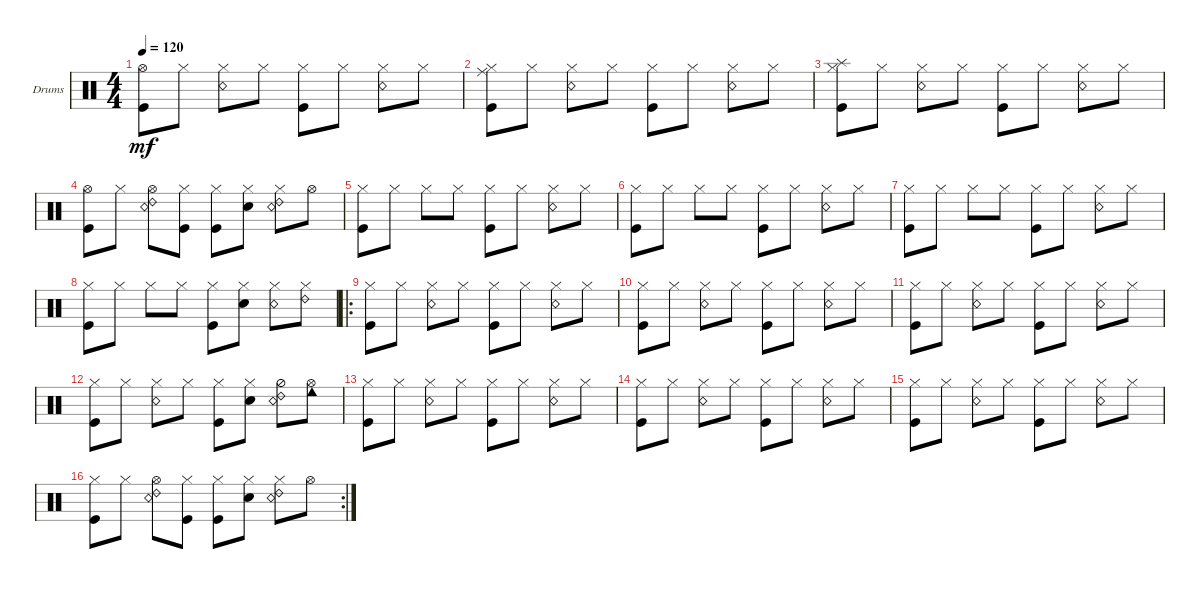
\defaultSystemsLayout 4
\bracketExtendMode groupsimilarinstruments
\firstSystemTrackNameOrientation horizontal
\otherSystemsTrackNameOrientation horizontal
\track ("Drumkit" "Drums") {instrument percussion}
\staff {score}
\articulation defaults
\ts (4 4)
\tempo 120
\clef neutral
\ks c
("Hi-Hat (open)" "Kick (hit)").8{dy mf} "Hi-Hat (closed)".8 ("Hi-Hat (closed)" "Snare (rim shot)").8 "Hi-Hat (closed)".8 ("Hi-Hat (closed)" "Kick (hit)").8 "Hi-Hat (closed)".8 ("Hi-Hat (closed)" "Snare (rim shot)").8 "Hi-Hat (closed)".8 |
("Hi-Hat (closed)" "Kick (hit)" "Ride (middle)").8 "Hi-Hat (closed)".8 ("Hi-Hat (closed)" "Snare (rim shot)").8 "Hi-Hat (closed)".8 ("Hi-Hat (closed)" "Kick (hit)").8 "Hi-Hat (closed)".8 ("Hi-Hat (closed)" "Snare (rim shot)").8 "Hi-Hat (closed)".8 |
("Hi-Hat (closed)" "Kick (hit)" "Splash (hit)").8 "Hi-Hat (closed)".8 ("Hi-Hat (closed)" "Snare (rim shot)").8 "Hi-Hat (closed)".8 ("Hi-Hat (closed)" "Kick (hit)").8 "Hi-Hat (closed)".8 ("Hi-Hat (closed)" "Snare (rim shot)").8 "Hi-Hat (closed)".8 |
("Hi-Hat (open)" "Kick (hit)").8 "Hi-Hat (closed)".8 ("Hi-Hat (open)" "Snare (rim shot)" "Ride (bell) 2").8 ("Hi-Hat (closed)" "Kick (hit)").8 ("Hi-Hat (closed)" "Kick (hit)").8 ("Hi-Hat (closed)" "Snare (hit) 2").8 ("Hi-Hat (closed)" "Snare (rim shot)" "Ride (bell) 2").8 "Hi-Hat (open)".8 |
("Hi-Hat (closed)" "Kick (hit)").8 "Hi-Hat (closed)".8 "Hi-Hat (closed)".8 "Hi-Hat (closed)".8 ("Hi-Hat (closed)" "Kick (hit)").8 "Hi-Hat (closed)".8 ("Hi-Hat (closed)" "Snare (rim shot)").8 "Hi-Hat (closed)".8 |
("Hi-Hat (closed)" "Kick (hit)").8 "Hi-Hat (closed)".8 "Hi-Hat (closed)".8 "Hi-Hat (closed)".8 ("Hi-Hat (closed)" "Kick (hit)").8 "Hi-Hat (closed)".8 ("Hi-Hat (closed)" "Snare (rim shot)").8 "Hi-Hat (closed)".8 |
("Hi-Hat (closed)" "Kick (hit)").8 "Hi-Hat (closed)".8 "Hi-Hat (closed)".8 "Hi-Hat (closed)".8 ("Hi-Hat (closed)" "Kick (hit)").8 "Hi-Hat (closed)".8 ("Hi-Hat (closed)" "Snare (rim shot)").8 "Hi-Hat (closed)".8 |
("Hi-Hat (closed)" "Kick (hit)").8 "Hi-Hat (closed)".8 "Hi-Hat (closed)".8 "Hi-Hat (closed)".8 ("Hi-Hat (closed)" "Kick (hit)").8 ("Hi-Hat (closed)" "Snare (hit) 2").8 ("Hi-Hat (closed)" "Snare (rim shot)").8 ("Hi-Hat (closed)" "Ride (bell) 2").8 |
\ro
("Hi-Hat (closed)" "Kick (hit)").8 "Hi-Hat (closed)".8 ("Hi-Hat (closed)" "Snare (rim shot)").8 "Hi-Hat (closed)".8 ("Hi-Hat (closed)" "Kick (hit)").8 "Hi-Hat (closed)".8 ("Hi-Hat (closed)" "Snare (rim shot)").8 "Hi-Hat (closed)".8 |
("Hi-Hat (closed)" "Kick (hit)").8 "Hi-Hat (closed)".8 ("Hi-Hat (closed)" "Snare (rim shot)").8 "Hi-Hat (closed)".8 ("Hi-Hat (closed)" "Kick (hit)").8 "Hi-Hat (closed)".8 ("Hi-Hat (closed)" "Snare (rim shot)").8 "Hi-Hat (closed)".8 |
("Hi-Hat (closed)" "Kick (hit)").8 "Hi-Hat (closed)".8 ("Hi-Hat (closed)" "Snare (rim shot)").8 "Hi-Hat (closed)".8 ("Hi-Hat (closed)" "Kick (hit)").8 "Hi-Hat (closed)".8 ("Hi-Hat (closed)" "Snare (rim shot)").8 "Hi-Hat (closed)".8 |
("Hi-Hat (closed)" "Kick (hit)").8 "Hi-Hat (closed)".8 ("Hi-Hat (closed)" "Snare (rim shot)").8 "Hi-Hat (closed)".8 ("Hi-Hat (closed)" "Kick (hit)").8 ("Hi-Hat (closed)" "Snare (hit) 2").8 ("Hi-Hat (half)" "Snare (rim shot)" "Ride (bell) 2").8 ("Hi-Hat (open)" "Cowbell low (hit)").8 |
("Hi-Hat (closed)" "Kick (hit)").8 "Hi-Hat (closed)".8 ("Hi-Hat (closed)" "Snare (rim shot)").8 "Hi-Hat (closed)".8 ("Hi-Hat (closed)" "Kick (hit)").8 "Hi-Hat (closed)".8 ("Hi-Hat (closed)" "Snare (rim shot)").8 "Hi-Hat (closed)".8 |
("Hi-Hat (closed)" "Kick (hit)").8 "Hi-Hat (closed)".8 ("Hi-Hat (closed)" "Snare (rim shot)").8 "Hi-Hat (closed)".8 ("Hi-Hat (closed)" "Kick (hit)").8 "Hi-Hat (closed)".8 ("Hi-Hat (closed)" "Snare (rim shot)").8 "Hi-Hat (closed)".8 |
("Hi-Hat (closed)" "Kick (hit)").8 "Hi-Hat (closed)".8 ("Hi-Hat (closed)" "Snare (rim shot)").8 "Hi-Hat (closed)".8 ("Hi-Hat (closed)" "Kick (hit)").8 "Hi-Hat (closed)".8 ("Hi-Hat (closed)" "Snare (rim shot)").8 "Hi-Hat (closed)".8 |
\rc 2
("Hi-Hat (closed)" "Kick (hit)").8 "Hi-Hat (closed)".8 ("Hi-Hat (open)" "Snare (rim shot)" "Ride (bell) 2").8 ("Hi-Hat (closed)" "Kick (hit)").8 ("Hi-Hat (closed)" "Kick (hit)").8 ("Hi-Hat (closed)" "Snare (hit) 2").8 ("Hi-Hat (closed)" "Snare (rim shot)" "Ride (bell) 2").8 "Hi-Hat (open)".8
